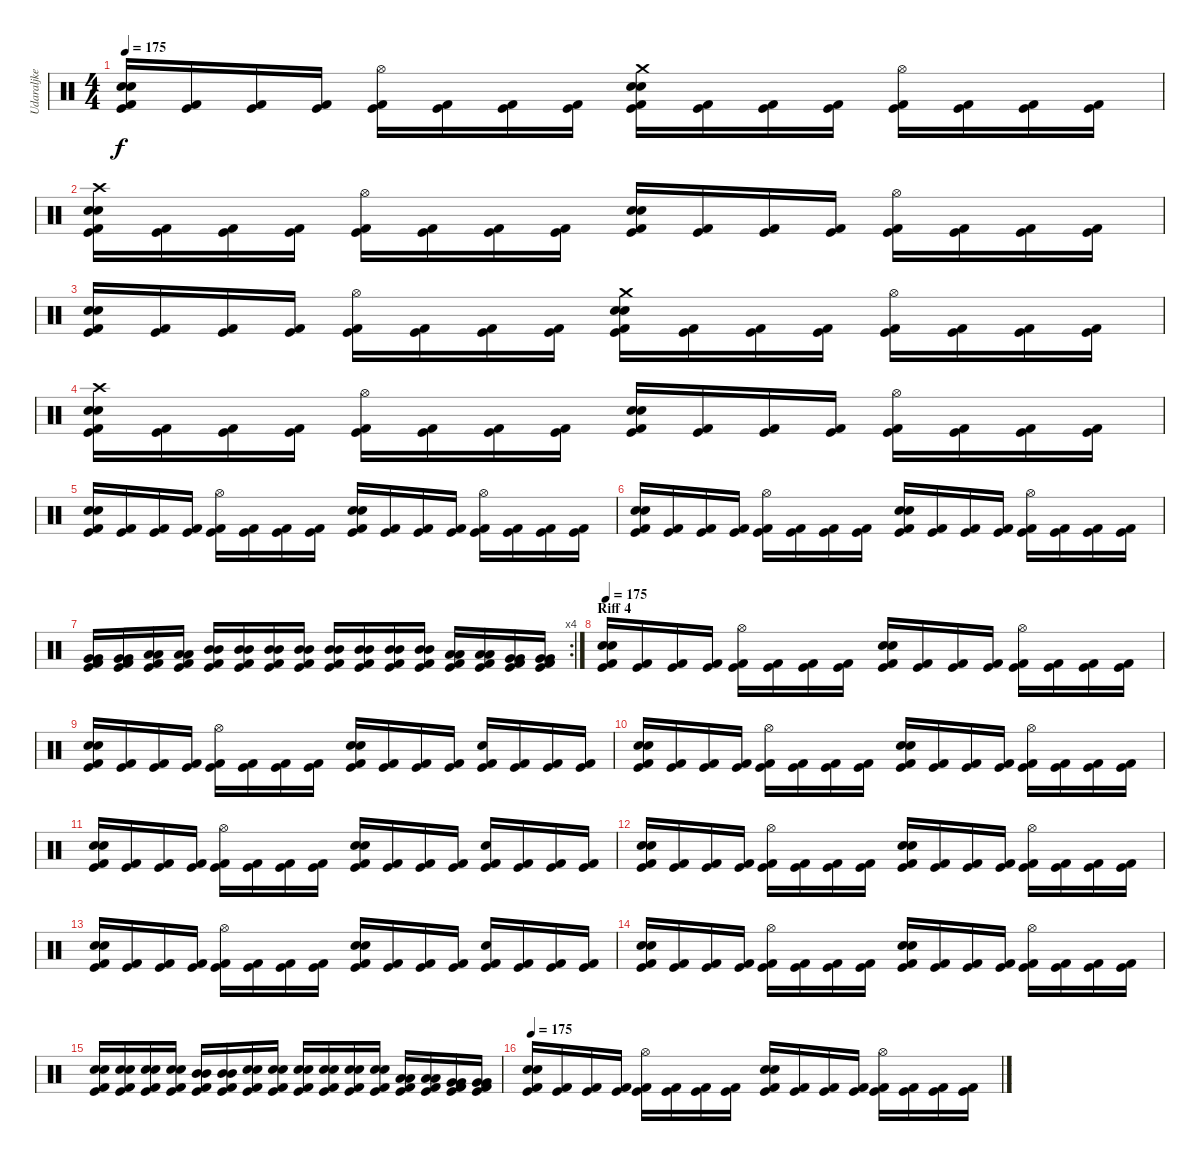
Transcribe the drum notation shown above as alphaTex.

\track ("Udaraljke" "Udaraljke") {instrument percussion}
\staff {score}
\articulation defaults
\ts (4 4)
\tempo 175
\clef neutral
\ks c
("Electric Snare (hit)" "Snare (hit) 2" "Kick (hit) 2" "Kick (hit)").16{dy f} ("Kick (hit) 2" "Kick (hit)").16 ("Kick (hit) 2" "Kick (hit)").16 ("Kick (hit) 2" "Kick (hit)").16 ("Hi-Hat (open)" "Kick (hit) 2" "Kick (hit)").16 ("Kick (hit) 2" "Kick (hit)").16 ("Kick (hit) 2" "Kick (hit)").16 ("Kick (hit) 2" "Kick (hit)").16 ("Crash medium (hit)" "Electric Snare (hit)" "Snare (hit) 2" "Kick (hit) 2" "Kick (hit)").16 ("Kick (hit) 2" "Kick (hit)").16 ("Kick (hit) 2" "Kick (hit)").16 ("Kick (hit) 2" "Kick (hit)").16 ("Hi-Hat (open)" "Kick (hit) 2" "Kick (hit)").16 ("Kick (hit) 2" "Kick (hit)").16 ("Kick (hit) 2" "Kick (hit)").16 ("Kick (hit) 2" "Kick (hit)").16 |
("Crash high (hit)" "Electric Snare (hit)" "Snare (hit) 2" "Kick (hit) 2" "Kick (hit)").16 ("Kick (hit) 2" "Kick (hit)").16 ("Kick (hit) 2" "Kick (hit)").16 ("Kick (hit) 2" "Kick (hit)").16 ("Hi-Hat (open)" "Kick (hit) 2" "Kick (hit)").16 ("Kick (hit) 2" "Kick (hit)").16 ("Kick (hit) 2" "Kick (hit)").16 ("Kick (hit) 2" "Kick (hit)").16 ("Electric Snare (hit)" "Snare (hit) 2" "Kick (hit) 2" "Kick (hit)").16 ("Kick (hit) 2" "Kick (hit)").16 ("Kick (hit) 2" "Kick (hit)").16 ("Kick (hit) 2" "Kick (hit)").16 ("Hi-Hat (open)" "Kick (hit) 2" "Kick (hit)").16 ("Kick (hit) 2" "Kick (hit)").16 ("Kick (hit) 2" "Kick (hit)").16 ("Kick (hit) 2" "Kick (hit)").16 |
("Electric Snare (hit)" "Snare (hit) 2" "Kick (hit) 2" "Kick (hit)").16 ("Kick (hit) 2" "Kick (hit)").16 ("Kick (hit) 2" "Kick (hit)").16 ("Kick (hit) 2" "Kick (hit)").16 ("Hi-Hat (open)" "Kick (hit) 2" "Kick (hit)").16 ("Kick (hit) 2" "Kick (hit)").16 ("Kick (hit) 2" "Kick (hit)").16 ("Kick (hit) 2" "Kick (hit)").16 ("Crash medium (hit)" "Electric Snare (hit)" "Snare (hit) 2" "Kick (hit) 2" "Kick (hit)").16 ("Kick (hit) 2" "Kick (hit)").16 ("Kick (hit) 2" "Kick (hit)").16 ("Kick (hit) 2" "Kick (hit)").16 ("Hi-Hat (open)" "Kick (hit) 2" "Kick (hit)").16 ("Kick (hit) 2" "Kick (hit)").16 ("Kick (hit) 2" "Kick (hit)").16 ("Kick (hit) 2" "Kick (hit)").16 |
("Crash high (hit)" "Electric Snare (hit)" "Snare (hit) 2" "Kick (hit) 2" "Kick (hit)").16 ("Kick (hit) 2" "Kick (hit)").16 ("Kick (hit) 2" "Kick (hit)").16 ("Kick (hit) 2" "Kick (hit)").16 ("Hi-Hat (open)" "Kick (hit) 2" "Kick (hit)").16 ("Kick (hit) 2" "Kick (hit)").16 ("Kick (hit) 2" "Kick (hit)").16 ("Kick (hit) 2" "Kick (hit)").16 ("Electric Snare (hit)" "Snare (hit) 2" "Kick (hit) 2" "Kick (hit)").16 ("Kick (hit) 2" "Kick (hit)").16 ("Kick (hit) 2" "Kick (hit)").16 ("Kick (hit) 2" "Kick (hit)").16 ("Hi-Hat (open)" "Kick (hit) 2" "Kick (hit)").16 ("Kick (hit) 2" "Kick (hit)").16 ("Kick (hit) 2" "Kick (hit)").16 ("Kick (hit) 2" "Kick (hit)").16 |
("Electric Snare (hit)" "Snare (hit) 2" "Kick (hit) 2" "Kick (hit)").16 ("Kick (hit) 2" "Kick (hit)").16 ("Kick (hit) 2" "Kick (hit)").16 ("Kick (hit) 2" "Kick (hit)").16 ("Hi-Hat (open)" "Kick (hit) 2" "Kick (hit)").16 ("Kick (hit) 2" "Kick (hit)").16 ("Kick (hit) 2" "Kick (hit)").16 ("Kick (hit) 2" "Kick (hit)").16 ("Electric Snare (hit)" "Snare (hit) 2" "Kick (hit) 2" "Kick (hit)").16 ("Kick (hit) 2" "Kick (hit)").16 ("Kick (hit) 2" "Kick (hit)").16 ("Kick (hit) 2" "Kick (hit)").16 ("Hi-Hat (open)" "Kick (hit) 2" "Kick (hit)").16 ("Kick (hit) 2" "Kick (hit)").16 ("Kick (hit) 2" "Kick (hit)").16 ("Kick (hit) 2" "Kick (hit)").16 |
("Electric Snare (hit)" "Snare (hit) 2" "Kick (hit) 2" "Kick (hit)").16 ("Kick (hit) 2" "Kick (hit)").16 ("Kick (hit) 2" "Kick (hit)").16 ("Kick (hit) 2" "Kick (hit)").16 ("Hi-Hat (open)" "Kick (hit) 2" "Kick (hit)").16 ("Kick (hit) 2" "Kick (hit)").16 ("Kick (hit) 2" "Kick (hit)").16 ("Kick (hit) 2" "Kick (hit)").16 ("Electric Snare (hit)" "Snare (hit) 2" "Kick (hit) 2" "Kick (hit)").16 ("Kick (hit) 2" "Kick (hit)").16 ("Kick (hit) 2" "Kick (hit)").16 ("Kick (hit) 2" "Kick (hit)").16 ("Hi-Hat (open)" "Kick (hit) 2" "Kick (hit)").16 ("Kick (hit) 2" "Kick (hit)").16 ("Kick (hit) 2" "Kick (hit)").16 ("Kick (hit) 2" "Kick (hit)").16 |
\rc 4
("Very Low Tom (hit)" "Very Low Tom (hit)" "Kick (hit) 2" "Kick (hit)").16 ("Very Low Tom (hit)" "Very Low Tom (hit)" "Kick (hit) 2" "Kick (hit)").16 ("Low Tom (hit)" "Low Tom (hit)" "Kick (hit) 2" "Kick (hit)").16 ("Low Tom (hit)" "Low Tom (hit)" "Kick (hit) 2" "Kick (hit)").16 ("Mid Tom (hit)" "Mid Tom (hit)" "Kick (hit) 2" "Kick (hit)").16 ("Mid Tom (hit)" "Mid Tom (hit)" "Kick (hit) 2" "Kick (hit)").16 ("Mid Tom (hit)" "Mid Tom (hit)" "Kick (hit) 2" "Kick (hit)").16 ("Mid Tom (hit)" "Mid Tom (hit)" "Kick (hit) 2" "Kick (hit)").16 ("Mid Tom (hit)" "Mid Tom (hit)" "Kick (hit) 2" "Kick (hit)").16 ("Mid Tom (hit)" "Mid Tom (hit)" "Kick (hit) 2" "Kick (hit)").16 ("Mid Tom (hit)" "Mid Tom (hit)" "Kick (hit) 2" "Kick (hit)").16 ("Mid Tom (hit)" "Mid Tom (hit)" "Kick (hit) 2" "Kick (hit)").16 ("Low Tom (hit)" "Low Tom (hit)" "Kick (hit) 2" "Kick (hit)").16 ("Low Tom (hit)" "Low Tom (hit)" "Kick (hit) 2" "Kick (hit)").16 ("Very Low Tom (hit)" "Very Low Tom (hit)" "Kick (hit) 2" "Kick (hit)").16 ("Very Low Tom (hit)" "Very Low Tom (hit)" "Kick (hit) 2" "Kick (hit)").16 |
\section ("" "Riff 4")
\tempo 175
("Electric Snare (hit)" "Snare (hit) 2" "Kick (hit) 2" "Kick (hit)").16 ("Kick (hit) 2" "Kick (hit)").16 ("Kick (hit) 2" "Kick (hit)").16 ("Kick (hit) 2" "Kick (hit)").16 ("Hi-Hat (open)" "Kick (hit) 2" "Kick (hit)").16 ("Kick (hit) 2" "Kick (hit)").16 ("Kick (hit) 2" "Kick (hit)").16 ("Kick (hit) 2" "Kick (hit)").16 ("Electric Snare (hit)" "Snare (hit) 2" "Kick (hit) 2" "Kick (hit)").16 ("Kick (hit) 2" "Kick (hit)").16 ("Kick (hit) 2" "Kick (hit)").16 ("Kick (hit) 2" "Kick (hit)").16 ("Hi-Hat (open)" "Kick (hit) 2" "Kick (hit)").16 ("Kick (hit) 2" "Kick (hit)").16 ("Kick (hit) 2" "Kick (hit)").16 ("Kick (hit) 2" "Kick (hit)").16 |
("Electric Snare (hit)" "Snare (hit) 2" "Kick (hit) 2" "Kick (hit)").16 ("Kick (hit) 2" "Kick (hit)").16 ("Kick (hit) 2" "Kick (hit)").16 ("Kick (hit) 2" "Kick (hit)").16 ("Hi-Hat (open)" "Kick (hit) 2" "Kick (hit)").16 ("Kick (hit) 2" "Kick (hit)").16 ("Kick (hit) 2" "Kick (hit)").16 ("Kick (hit) 2" "Kick (hit)").16 ("Electric Snare (hit)" "Snare (hit) 2" "Kick (hit) 2" "Kick (hit)").16 ("Kick (hit) 2" "Kick (hit)").16 ("Kick (hit) 2" "Kick (hit)").16 ("Kick (hit) 2" "Kick (hit)").16 ("Electric Snare (hit)" "Kick (hit) 2" "Kick (hit)").16 ("Kick (hit) 2" "Kick (hit)").16 ("Kick (hit) 2" "Kick (hit)").16 ("Kick (hit) 2" "Kick (hit)").16 |
("Electric Snare (hit)" "Snare (hit) 2" "Kick (hit) 2" "Kick (hit)").16 ("Kick (hit) 2" "Kick (hit)").16 ("Kick (hit) 2" "Kick (hit)").16 ("Kick (hit) 2" "Kick (hit)").16 ("Hi-Hat (open)" "Kick (hit) 2" "Kick (hit)").16 ("Kick (hit) 2" "Kick (hit)").16 ("Kick (hit) 2" "Kick (hit)").16 ("Kick (hit) 2" "Kick (hit)").16 ("Electric Snare (hit)" "Snare (hit) 2" "Kick (hit) 2" "Kick (hit)").16 ("Kick (hit) 2" "Kick (hit)").16 ("Kick (hit) 2" "Kick (hit)").16 ("Kick (hit) 2" "Kick (hit)").16 ("Hi-Hat (open)" "Kick (hit) 2" "Kick (hit)").16 ("Kick (hit) 2" "Kick (hit)").16 ("Kick (hit) 2" "Kick (hit)").16 ("Kick (hit) 2" "Kick (hit)").16 |
("Electric Snare (hit)" "Snare (hit) 2" "Kick (hit) 2" "Kick (hit)").16 ("Kick (hit) 2" "Kick (hit)").16 ("Kick (hit) 2" "Kick (hit)").16 ("Kick (hit) 2" "Kick (hit)").16 ("Hi-Hat (open)" "Kick (hit) 2" "Kick (hit)").16 ("Kick (hit) 2" "Kick (hit)").16 ("Kick (hit) 2" "Kick (hit)").16 ("Kick (hit) 2" "Kick (hit)").16 ("Electric Snare (hit)" "Snare (hit) 2" "Kick (hit) 2" "Kick (hit)").16 ("Kick (hit) 2" "Kick (hit)").16 ("Kick (hit) 2" "Kick (hit)").16 ("Kick (hit) 2" "Kick (hit)").16 ("Electric Snare (hit)" "Kick (hit) 2" "Kick (hit)").16 ("Kick (hit) 2" "Kick (hit)").16 ("Kick (hit) 2" "Kick (hit)").16 ("Kick (hit) 2" "Kick (hit)").16 |
("Electric Snare (hit)" "Snare (hit) 2" "Kick (hit) 2" "Kick (hit)").16 ("Kick (hit) 2" "Kick (hit)").16 ("Kick (hit) 2" "Kick (hit)").16 ("Kick (hit) 2" "Kick (hit)").16 ("Hi-Hat (open)" "Kick (hit) 2" "Kick (hit)").16 ("Kick (hit) 2" "Kick (hit)").16 ("Kick (hit) 2" "Kick (hit)").16 ("Kick (hit) 2" "Kick (hit)").16 ("Electric Snare (hit)" "Snare (hit) 2" "Kick (hit) 2" "Kick (hit)").16 ("Kick (hit) 2" "Kick (hit)").16 ("Kick (hit) 2" "Kick (hit)").16 ("Kick (hit) 2" "Kick (hit)").16 ("Hi-Hat (open)" "Kick (hit) 2" "Kick (hit)").16 ("Kick (hit) 2" "Kick (hit)").16 ("Kick (hit) 2" "Kick (hit)").16 ("Kick (hit) 2" "Kick (hit)").16 |
("Electric Snare (hit)" "Snare (hit) 2" "Kick (hit) 2" "Kick (hit)").16 ("Kick (hit) 2" "Kick (hit)").16 ("Kick (hit) 2" "Kick (hit)").16 ("Kick (hit) 2" "Kick (hit)").16 ("Hi-Hat (open)" "Kick (hit) 2" "Kick (hit)").16 ("Kick (hit) 2" "Kick (hit)").16 ("Kick (hit) 2" "Kick (hit)").16 ("Kick (hit) 2" "Kick (hit)").16 ("Electric Snare (hit)" "Snare (hit) 2" "Kick (hit) 2" "Kick (hit)").16 ("Kick (hit) 2" "Kick (hit)").16 ("Kick (hit) 2" "Kick (hit)").16 ("Kick (hit) 2" "Kick (hit)").16 ("Electric Snare (hit)" "Kick (hit) 2" "Kick (hit)").16 ("Kick (hit) 2" "Kick (hit)").16 ("Kick (hit) 2" "Kick (hit)").16 ("Kick (hit) 2" "Kick (hit)").16 |
("Electric Snare (hit)" "Snare (hit) 2" "Kick (hit) 2" "Kick (hit)").16 ("Kick (hit) 2" "Kick (hit)").16 ("Kick (hit) 2" "Kick (hit)").16 ("Kick (hit) 2" "Kick (hit)").16 ("Hi-Hat (open)" "Kick (hit) 2" "Kick (hit)").16 ("Kick (hit) 2" "Kick (hit)").16 ("Kick (hit) 2" "Kick (hit)").16 ("Kick (hit) 2" "Kick (hit)").16 ("Electric Snare (hit)" "Snare (hit) 2" "Kick (hit) 2" "Kick (hit)").16 ("Kick (hit) 2" "Kick (hit)").16 ("Kick (hit) 2" "Kick (hit)").16 ("Kick (hit) 2" "Kick (hit)").16 ("Hi-Hat (open)" "Kick (hit) 2" "Kick (hit)").16 ("Kick (hit) 2" "Kick (hit)").16 ("Kick (hit) 2" "Kick (hit)").16 ("Kick (hit) 2" "Kick (hit)").16 |
("Electric Snare (hit)" "Electric Snare (hit)" "Kick (hit) 2" "Kick (hit)").16 ("Electric Snare (hit)" "Electric Snare (hit)" "Kick (hit) 2" "Kick (hit)").16 ("Electric Snare (hit)" "Electric Snare (hit)" "Kick (hit) 2" "Kick (hit)").16 ("Electric Snare (hit)" "Electric Snare (hit)" "Kick (hit) 2" "Kick (hit)").16 ("Mid Tom (hit)" "Mid Tom (hit)" "Kick (hit) 2" "Kick (hit)").16 ("Mid Tom (hit)" "Mid Tom (hit)" "Kick (hit) 2" "Kick (hit)").16 ("Electric Snare (hit)" "Electric Snare (hit)" "Kick (hit) 2" "Kick (hit)").16 ("Electric Snare (hit)" "Electric Snare (hit)" "Kick (hit) 2" "Kick (hit)").16 ("Electric Snare (hit)" "Electric Snare (hit)" "Kick (hit) 2" "Kick (hit)").16 ("Electric Snare (hit)" "Electric Snare (hit)" "Kick (hit) 2" "Kick (hit)").16 ("Electric Snare (hit)" "Electric Snare (hit)" "Kick (hit) 2" "Kick (hit)").16 ("Electric Snare (hit)" "Electric Snare (hit)" "Kick (hit) 2" "Kick (hit)").16 ("Low Tom (hit)" "Low Tom (hit)" "Kick (hit) 2" "Kick (hit)").16 ("Low Tom (hit)" "Low Tom (hit)" "Kick (hit) 2" "Kick (hit)").16 ("Very Low Tom (hit)" "Very Low Tom (hit)" "Kick (hit) 2" "Kick (hit)").16 ("Very Low Tom (hit)" "Very Low Tom (hit)" "Kick (hit) 2" "Kick (hit)").16 |
\tempo 175
("Electric Snare (hit)" "Snare (hit) 2" "Kick (hit) 2" "Kick (hit)").16 ("Kick (hit) 2" "Kick (hit)").16 ("Kick (hit) 2" "Kick (hit)").16 ("Kick (hit) 2" "Kick (hit)").16 ("Hi-Hat (open)" "Kick (hit) 2" "Kick (hit)").16 ("Kick (hit) 2" "Kick (hit)").16 ("Kick (hit) 2" "Kick (hit)").16 ("Kick (hit) 2" "Kick (hit)").16 ("Electric Snare (hit)" "Snare (hit) 2" "Kick (hit) 2" "Kick (hit)").16 ("Kick (hit) 2" "Kick (hit)").16 ("Kick (hit) 2" "Kick (hit)").16 ("Kick (hit) 2" "Kick (hit)").16 ("Hi-Hat (open)" "Kick (hit) 2" "Kick (hit)").16 ("Kick (hit) 2" "Kick (hit)").16 ("Kick (hit) 2" "Kick (hit)").16 ("Kick (hit) 2" "Kick (hit)").16
